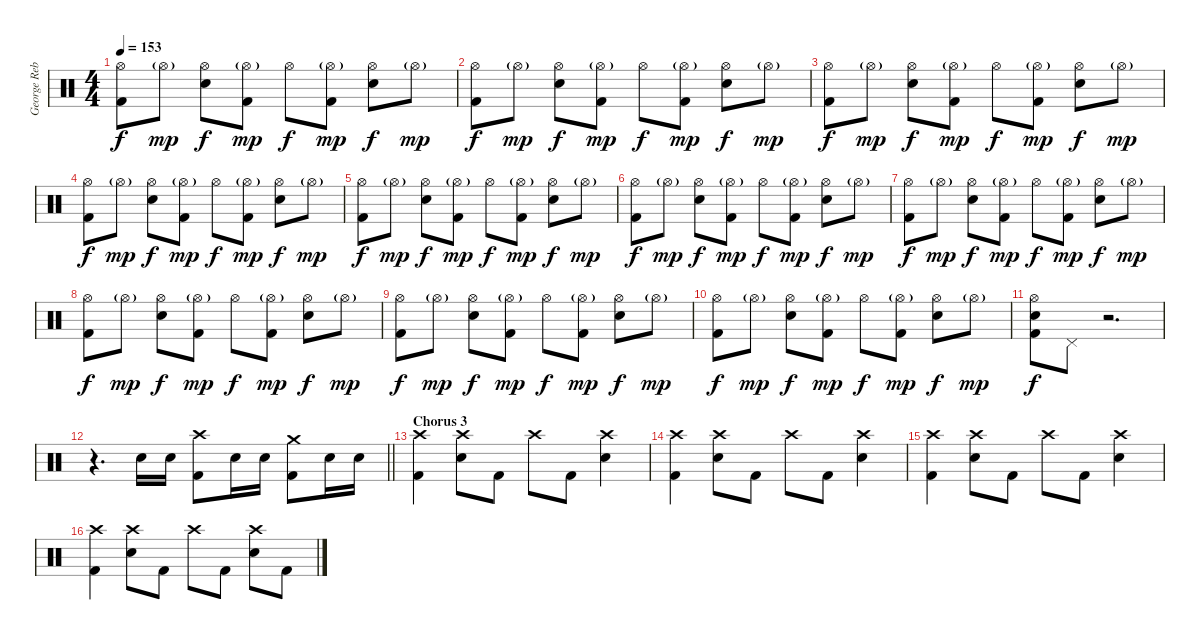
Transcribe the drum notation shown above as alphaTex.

\track ("George Rebelo (Drums)" "George Reb") {instrument percussion}
\staff {score}
\articulation defaults
\ts (4 4)
\tempo 153
\clef neutral
\ks c
("Hi-Hat (open)" "Kick (hit) 2").8{dy f} "Hi-Hat (open)"{g}.8{dy mp} ("Hi-Hat (open)" "Electric Snare (hit)").8{dy f} ("Hi-Hat (open)"{g} "Kick (hit) 2").8{dy mp} "Hi-Hat (open)".8{dy f} ("Hi-Hat (open)"{g} "Kick (hit) 2").8{dy mp} ("Hi-Hat (open)" "Electric Snare (hit)").8{dy f} "Hi-Hat (open)"{g}.8{dy mp} |
("Hi-Hat (open)" "Kick (hit) 2").8{dy f} "Hi-Hat (open)"{g}.8{dy mp} ("Hi-Hat (open)" "Electric Snare (hit)").8{dy f} ("Hi-Hat (open)"{g} "Kick (hit) 2").8{dy mp} "Hi-Hat (open)".8{dy f} ("Hi-Hat (open)"{g} "Kick (hit) 2").8{dy mp} ("Hi-Hat (open)" "Electric Snare (hit)").8{dy f} "Hi-Hat (open)"{g}.8{dy mp} |
("Hi-Hat (open)" "Kick (hit) 2").8{dy f} "Hi-Hat (open)"{g}.8{dy mp} ("Hi-Hat (open)" "Electric Snare (hit)").8{dy f} ("Hi-Hat (open)"{g} "Kick (hit) 2").8{dy mp} "Hi-Hat (open)".8{dy f} ("Hi-Hat (open)"{g} "Kick (hit) 2").8{dy mp} ("Hi-Hat (open)" "Electric Snare (hit)").8{dy f} "Hi-Hat (open)"{g}.8{dy mp} |
("Hi-Hat (open)" "Kick (hit) 2").8{dy f} "Hi-Hat (open)"{g}.8{dy mp} ("Hi-Hat (open)" "Electric Snare (hit)").8{dy f} ("Hi-Hat (open)"{g} "Kick (hit) 2").8{dy mp} "Hi-Hat (open)".8{dy f} ("Hi-Hat (open)"{g} "Kick (hit) 2").8{dy mp} ("Hi-Hat (open)" "Electric Snare (hit)").8{dy f} "Hi-Hat (open)"{g}.8{dy mp} |
("Hi-Hat (open)" "Kick (hit) 2").8{dy f} "Hi-Hat (open)"{g}.8{dy mp} ("Hi-Hat (open)" "Electric Snare (hit)").8{dy f} ("Hi-Hat (open)"{g} "Kick (hit) 2").8{dy mp} "Hi-Hat (open)".8{dy f} ("Hi-Hat (open)"{g} "Kick (hit) 2").8{dy mp} ("Hi-Hat (open)" "Electric Snare (hit)").8{dy f} "Hi-Hat (open)"{g}.8{dy mp} |
("Hi-Hat (open)" "Kick (hit) 2").8{dy f} "Hi-Hat (open)"{g}.8{dy mp} ("Hi-Hat (open)" "Electric Snare (hit)").8{dy f} ("Hi-Hat (open)"{g} "Kick (hit) 2").8{dy mp} "Hi-Hat (open)".8{dy f} ("Hi-Hat (open)"{g} "Kick (hit) 2").8{dy mp} ("Hi-Hat (open)" "Electric Snare (hit)").8{dy f} "Hi-Hat (open)"{g}.8{dy mp} |
("Hi-Hat (open)" "Kick (hit) 2").8{dy f} "Hi-Hat (open)"{g}.8{dy mp} ("Hi-Hat (open)" "Electric Snare (hit)").8{dy f} ("Hi-Hat (open)"{g} "Kick (hit) 2").8{dy mp} "Hi-Hat (open)".8{dy f} ("Hi-Hat (open)"{g} "Kick (hit) 2").8{dy mp} ("Hi-Hat (open)" "Electric Snare (hit)").8{dy f} "Hi-Hat (open)"{g}.8{dy mp} |
("Hi-Hat (open)" "Kick (hit) 2").8{dy f} "Hi-Hat (open)"{g}.8{dy mp} ("Hi-Hat (open)" "Electric Snare (hit)").8{dy f} ("Hi-Hat (open)"{g} "Kick (hit) 2").8{dy mp} "Hi-Hat (open)".8{dy f} ("Hi-Hat (open)"{g} "Kick (hit) 2").8{dy mp} ("Hi-Hat (open)" "Electric Snare (hit)").8{dy f} "Hi-Hat (open)"{g}.8{dy mp} |
("Hi-Hat (open)" "Kick (hit) 2").8{dy f} "Hi-Hat (open)"{g}.8{dy mp} ("Hi-Hat (open)" "Electric Snare (hit)").8{dy f} ("Hi-Hat (open)"{g} "Kick (hit) 2").8{dy mp} "Hi-Hat (open)".8{dy f} ("Hi-Hat (open)"{g} "Kick (hit) 2").8{dy mp} ("Hi-Hat (open)" "Electric Snare (hit)").8{dy f} "Hi-Hat (open)"{g}.8{dy mp} |
("Hi-Hat (open)" "Kick (hit) 2").8{dy f} "Hi-Hat (open)"{g}.8{dy mp} ("Hi-Hat (open)" "Electric Snare (hit)").8{dy f} ("Hi-Hat (open)"{g} "Kick (hit) 2").8{dy mp} "Hi-Hat (open)".8{dy f} ("Hi-Hat (open)"{g} "Kick (hit) 2").8{dy mp} ("Hi-Hat (open)" "Electric Snare (hit)").8{dy f} "Hi-Hat (open)"{g}.8{dy mp} |
("Hi-Hat (open)" "Electric Snare (hit)" "Kick (hit) 2").8{dy f} "Pedal Hi-Hat (hit)".8 r.2{d} |
\barLineRight lightlight
r.4{d} "Electric Snare (hit)".16 "Electric Snare (hit)".16 ("Crash high (hit)" "Kick (hit) 2").8 "Electric Snare (hit)".16 "Electric Snare (hit)".16 ("Crash medium (hit)" "Kick (hit) 2").8 "Electric Snare (hit)".16 "Electric Snare (hit)".16 |
\section ("" "Chorus 3")
("Crash high (hit)" "Kick (hit) 2").4 ("Crash high (hit)" "Electric Snare (hit)").8 "Kick (hit) 2".8 "Crash high (hit)".8 "Kick (hit) 2".8 ("Crash high (hit)" "Electric Snare (hit)").4 |
("Crash high (hit)" "Kick (hit) 2").4 ("Crash high (hit)" "Electric Snare (hit)").8 "Kick (hit) 2".8 "Crash high (hit)".8 "Kick (hit) 2".8 ("Crash high (hit)" "Electric Snare (hit)").4 |
("Crash high (hit)" "Kick (hit) 2").4 ("Crash high (hit)" "Electric Snare (hit)").8 "Kick (hit) 2".8 "Crash high (hit)".8 "Kick (hit) 2".8 ("Crash high (hit)" "Electric Snare (hit)").4 |
("Crash high (hit)" "Kick (hit) 2").4 ("Crash high (hit)" "Electric Snare (hit)").8 "Kick (hit) 2".8 "Crash high (hit)".8 "Kick (hit) 2".8 ("Crash high (hit)" "Electric Snare (hit)").8 "Kick (hit) 2".8
